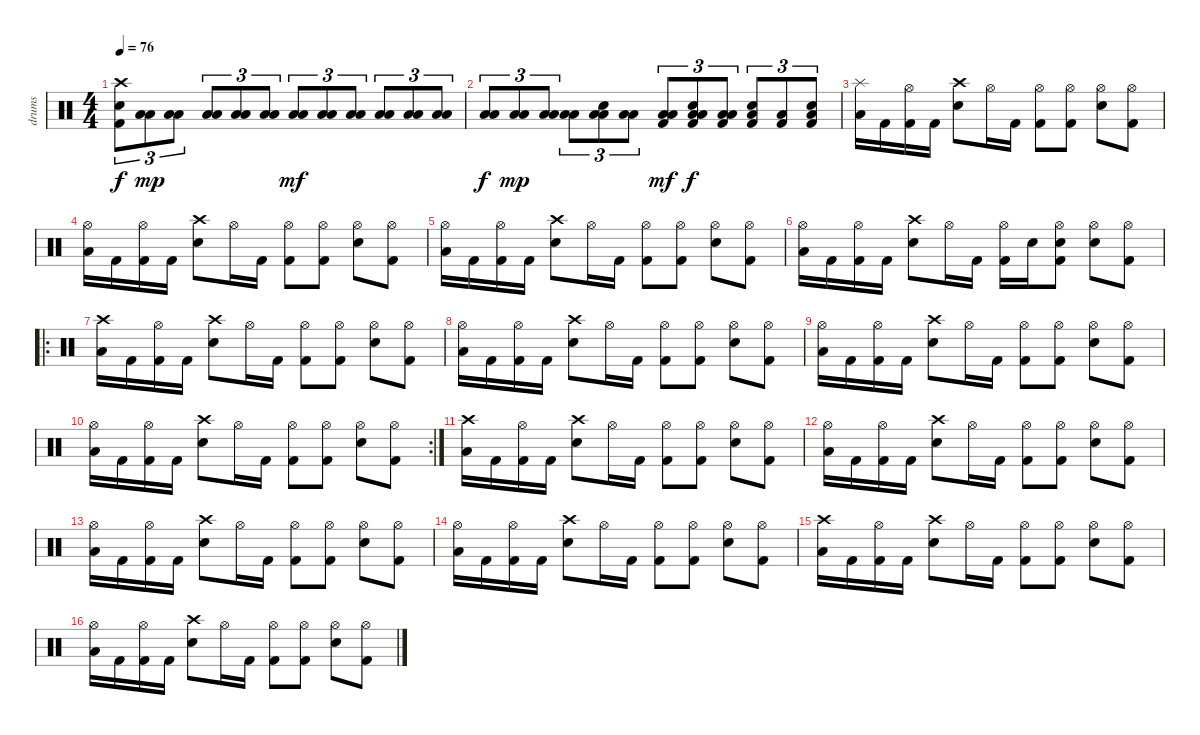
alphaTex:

\track ("drums" "drums") {instrument percussion}
\staff {score}
\articulation defaults
\ts (4 4)
\tempo 76
\clef neutral
\ks c
("Crash high (hit)" "Electric Snare (hit)" "Kick (hit) 2").8{tu (3 2) dy f} ("Low Tom (hit)" "Low Floor Tom (hit)").8{tu (3 2) dy mp} ("Low Tom (hit)" "Low Floor Tom (hit)").8{tu (3 2)} ("Low Tom (hit)" "Low Floor Tom (hit)").8{tu (3 2)} ("Low Tom (hit)" "Low Floor Tom (hit)").8{tu (3 2)} ("Low Tom (hit)" "Low Floor Tom (hit)").8{tu (3 2)} ("Low Tom (hit)" "Low Floor Tom (hit)").8{tu (3 2) dy mf} ("Low Tom (hit)" "Low Floor Tom (hit)").8{tu (3 2)} ("Low Tom (hit)" "Low Floor Tom (hit)").8{tu (3 2)} ("Low Tom (hit)" "Low Floor Tom (hit)").8{tu (3 2)} ("Low Tom (hit)" "Low Floor Tom (hit)").8{tu (3 2)} ("Low Tom (hit)" "Low Floor Tom (hit)").8{tu (3 2)} |
("Low Tom (hit)" "Low Floor Tom (hit)").8{tu (3 2) dy f} ("Low Tom (hit)" "Low Floor Tom (hit)").8{tu (3 2) dy mp} ("Low Tom (hit)" "Low Floor Tom (hit)").8{tu (3 2)} ("Low Tom (hit)" "Low Floor Tom (hit)").8{tu (3 2)} ("Electric Snare (hit)" "Low Tom (hit)" "Low Floor Tom (hit)").8{tu (3 2)} ("Low Tom (hit)" "Low Floor Tom (hit)").8{tu (3 2)} ("Low Tom (hit)" "Low Floor Tom (hit)" "Kick (hit) 2").8{tu (3 2) dy mf} ("Electric Snare (hit)" "Low Tom (hit)" "Low Floor Tom (hit)" "Kick (hit) 2").8{tu (3 2) dy f} ("Low Tom (hit)" "Low Floor Tom (hit)" "Kick (hit) 2").8{tu (3 2)} ("Electric Snare (hit)" "Low Tom (hit)" "Kick (hit) 2").8{tu (3 2)} ("Low Tom (hit)" "Kick (hit) 2").8{tu (3 2)} ("Electric Snare (hit)" "Low Tom (hit)" "Kick (hit) 2").8{tu (3 2)} |
("Splash (hit)" "Low Tom (hit)").16 "Kick (hit) 2".16 ("Hi-Hat (open)" "Kick (hit) 2").16 "Kick (hit) 2".16 ("Crash high (hit)" "Electric Snare (hit)").8 "Hi-Hat (open)".16 "Kick (hit) 2".16 ("Hi-Hat (open)" "Kick (hit) 2").8 ("Hi-Hat (open)" "Kick (hit) 2").8 ("Hi-Hat (open)" "Electric Snare (hit)").8 ("Hi-Hat (open)" "Kick (hit) 2").8 |
("Hi-Hat (open)" "Low Tom (hit)").16 "Kick (hit) 2".16 ("Hi-Hat (open)" "Kick (hit) 2").16 "Kick (hit) 2".16 ("Crash high (hit)" "Electric Snare (hit)").8 "Hi-Hat (open)".16 "Kick (hit) 2".16 ("Hi-Hat (open)" "Kick (hit) 2").8 ("Hi-Hat (open)" "Kick (hit) 2").8 ("Hi-Hat (open)" "Electric Snare (hit)").8 ("Hi-Hat (open)" "Kick (hit) 2").8 |
("Hi-Hat (open)" "Low Tom (hit)").16 "Kick (hit) 2".16 ("Hi-Hat (open)" "Kick (hit) 2").16 "Kick (hit) 2".16 ("Crash high (hit)" "Electric Snare (hit)").8 "Hi-Hat (open)".16 "Kick (hit) 2".16 ("Hi-Hat (open)" "Kick (hit) 2").8 ("Hi-Hat (open)" "Kick (hit) 2").8 ("Hi-Hat (open)" "Electric Snare (hit)").8 ("Hi-Hat (open)" "Kick (hit) 2").8 |
("Hi-Hat (open)" "Low Tom (hit)").16 "Kick (hit) 2".16 ("Hi-Hat (open)" "Kick (hit) 2").16 "Kick (hit) 2".16 ("Crash high (hit)" "Electric Snare (hit)").8 "Hi-Hat (open)".16 "Kick (hit) 2".16 ("Hi-Hat (open)" "Kick (hit) 2").16 "Electric Snare (hit)".16 ("Hi-Hat (open)" "Electric Snare (hit)" "Kick (hit) 2").8 ("Hi-Hat (open)" "Electric Snare (hit)").8 ("Hi-Hat (open)" "Kick (hit) 2").8 |
\ro
("Crash high (hit)" "Low Tom (hit)").16 "Kick (hit) 2".16 ("Hi-Hat (open)" "Kick (hit) 2").16 "Kick (hit) 2".16 ("Crash high (hit)" "Electric Snare (hit)").8 "Hi-Hat (open)".16 "Kick (hit) 2".16 ("Hi-Hat (open)" "Kick (hit) 2").8 ("Hi-Hat (open)" "Kick (hit) 2").8 ("Hi-Hat (open)" "Electric Snare (hit)").8 ("Hi-Hat (open)" "Kick (hit) 2").8 |
("Hi-Hat (open)" "Low Tom (hit)").16 "Kick (hit) 2".16 ("Hi-Hat (open)" "Kick (hit) 2").16 "Kick (hit) 2".16 ("Crash high (hit)" "Electric Snare (hit)").8 "Hi-Hat (open)".16 "Kick (hit) 2".16 ("Hi-Hat (open)" "Kick (hit) 2").8 ("Hi-Hat (open)" "Kick (hit) 2").8 ("Hi-Hat (open)" "Electric Snare (hit)").8 ("Hi-Hat (open)" "Kick (hit) 2").8 |
("Hi-Hat (open)" "Low Tom (hit)").16 "Kick (hit) 2".16 ("Hi-Hat (open)" "Kick (hit) 2").16 "Kick (hit) 2".16 ("Crash high (hit)" "Electric Snare (hit)").8 "Hi-Hat (open)".16 "Kick (hit) 2".16 ("Hi-Hat (open)" "Kick (hit) 2").8 ("Hi-Hat (open)" "Kick (hit) 2").8 ("Hi-Hat (open)" "Electric Snare (hit)").8 ("Hi-Hat (open)" "Kick (hit) 2").8 |
\rc 2
("Hi-Hat (open)" "Low Tom (hit)").16 "Kick (hit) 2".16 ("Hi-Hat (open)" "Kick (hit) 2").16 "Kick (hit) 2".16 ("Crash high (hit)" "Electric Snare (hit)").8 "Hi-Hat (open)".16 "Kick (hit) 2".16 ("Hi-Hat (open)" "Kick (hit) 2").8 ("Hi-Hat (open)" "Kick (hit) 2").8 ("Hi-Hat (open)" "Electric Snare (hit)").8 ("Hi-Hat (open)" "Kick (hit) 2").8 |
("Crash high (hit)" "Low Tom (hit)").16 "Kick (hit) 2".16 ("Hi-Hat (open)" "Kick (hit) 2").16 "Kick (hit) 2".16 ("Crash high (hit)" "Electric Snare (hit)").8 "Hi-Hat (open)".16 "Kick (hit) 2".16 ("Hi-Hat (open)" "Kick (hit) 2").8 ("Hi-Hat (open)" "Kick (hit) 2").8 ("Hi-Hat (open)" "Electric Snare (hit)").8 ("Hi-Hat (open)" "Kick (hit) 2").8 |
("Hi-Hat (open)" "Low Tom (hit)").16 "Kick (hit) 2".16 ("Hi-Hat (open)" "Kick (hit) 2").16 "Kick (hit) 2".16 ("Crash high (hit)" "Electric Snare (hit)").8 "Hi-Hat (open)".16 "Kick (hit) 2".16 ("Hi-Hat (open)" "Kick (hit) 2").8 ("Hi-Hat (open)" "Kick (hit) 2").8 ("Hi-Hat (open)" "Electric Snare (hit)").8 ("Hi-Hat (open)" "Kick (hit) 2").8 |
("Hi-Hat (open)" "Low Tom (hit)").16 "Kick (hit) 2".16 ("Hi-Hat (open)" "Kick (hit) 2").16 "Kick (hit) 2".16 ("Crash high (hit)" "Electric Snare (hit)").8 "Hi-Hat (open)".16 "Kick (hit) 2".16 ("Hi-Hat (open)" "Kick (hit) 2").8 ("Hi-Hat (open)" "Kick (hit) 2").8 ("Hi-Hat (open)" "Electric Snare (hit)").8 ("Hi-Hat (open)" "Kick (hit) 2").8 |
("Hi-Hat (open)" "Low Tom (hit)").16 "Kick (hit) 2".16 ("Hi-Hat (open)" "Kick (hit) 2").16 "Kick (hit) 2".16 ("Crash high (hit)" "Electric Snare (hit)").8 "Hi-Hat (open)".16 "Kick (hit) 2".16 ("Hi-Hat (open)" "Kick (hit) 2").8 ("Hi-Hat (open)" "Kick (hit) 2").8 ("Hi-Hat (open)" "Electric Snare (hit)").8 ("Hi-Hat (open)" "Kick (hit) 2").8 |
("Crash high (hit)" "Low Tom (hit)").16 "Kick (hit) 2".16 ("Hi-Hat (open)" "Kick (hit) 2").16 "Kick (hit) 2".16 ("Crash high (hit)" "Electric Snare (hit)").8 "Hi-Hat (open)".16 "Kick (hit) 2".16 ("Hi-Hat (open)" "Kick (hit) 2").8 ("Hi-Hat (open)" "Kick (hit) 2").8 ("Hi-Hat (open)" "Electric Snare (hit)").8 ("Hi-Hat (open)" "Kick (hit) 2").8 |
("Hi-Hat (open)" "Low Tom (hit)").16 "Kick (hit) 2".16 ("Hi-Hat (open)" "Kick (hit) 2").16 "Kick (hit) 2".16 ("Crash high (hit)" "Electric Snare (hit)").8 "Hi-Hat (open)".16 "Kick (hit) 2".16 ("Hi-Hat (open)" "Kick (hit) 2").8 ("Hi-Hat (open)" "Kick (hit) 2").8 ("Hi-Hat (open)" "Electric Snare (hit)").8 ("Hi-Hat (open)" "Kick (hit) 2").8
